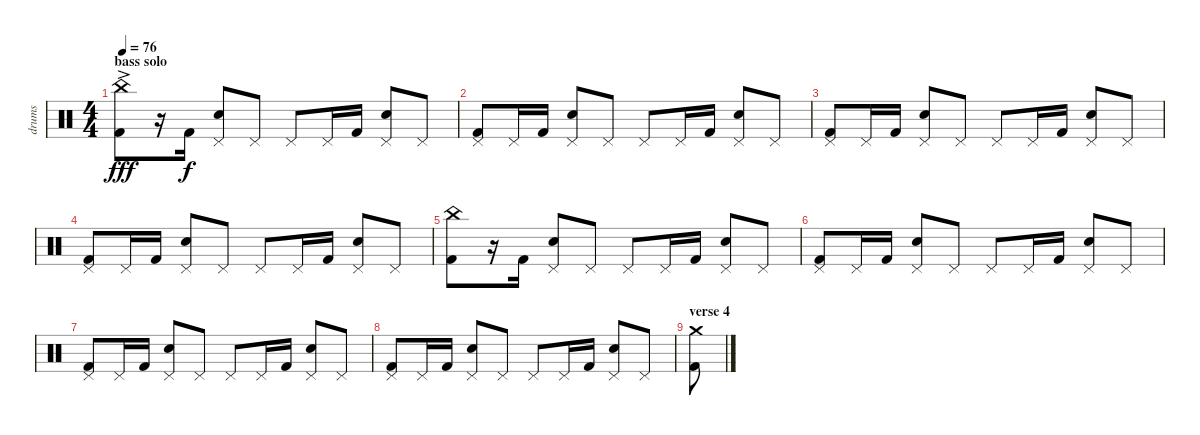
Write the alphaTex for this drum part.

\track ("drums" "drums") {instrument percussion}
\staff {score}
\articulation defaults
\ts (4 4)
\section ("" "bass solo")
\tempo 76
\clef neutral
\ks c
("China (hit)"{ac} "Kick (hit) 2"{ac}).8{dy fff} r.16 "Kick (hit) 2".16{dy f} ("Pedal Hi-Hat (hit)" "Snare (hit) 2").8 "Pedal Hi-Hat (hit)".8 "Pedal Hi-Hat (hit)".8 "Pedal Hi-Hat (hit)".16 "Kick (hit) 2".16 ("Pedal Hi-Hat (hit)" "Snare (hit) 2").8 "Pedal Hi-Hat (hit)".8 |
("Pedal Hi-Hat (hit)" "Kick (hit) 2").8 "Pedal Hi-Hat (hit)".16 "Kick (hit) 2".16 ("Pedal Hi-Hat (hit)" "Snare (hit) 2").8 "Pedal Hi-Hat (hit)".8 "Pedal Hi-Hat (hit)".8 "Pedal Hi-Hat (hit)".16 "Kick (hit) 2".16 ("Pedal Hi-Hat (hit)" "Snare (hit) 2").8 "Pedal Hi-Hat (hit)".8 |
("Pedal Hi-Hat (hit)" "Kick (hit) 2").8 "Pedal Hi-Hat (hit)".16 "Kick (hit) 2".16 ("Pedal Hi-Hat (hit)" "Snare (hit) 2").8 "Pedal Hi-Hat (hit)".8 "Pedal Hi-Hat (hit)".8 "Pedal Hi-Hat (hit)".16 "Kick (hit) 2".16 ("Pedal Hi-Hat (hit)" "Snare (hit) 2").8 "Pedal Hi-Hat (hit)".8 |
("Pedal Hi-Hat (hit)" "Kick (hit) 2").8 "Pedal Hi-Hat (hit)".16 "Kick (hit) 2".16 ("Pedal Hi-Hat (hit)" "Snare (hit) 2").8 "Pedal Hi-Hat (hit)".8 "Pedal Hi-Hat (hit)".8 "Pedal Hi-Hat (hit)".16 "Kick (hit) 2".16 ("Pedal Hi-Hat (hit)" "Snare (hit) 2").8 "Pedal Hi-Hat (hit)".8 |
("China (hit)" "Kick (hit) 2").8 r.16 "Kick (hit) 2".16 ("Pedal Hi-Hat (hit)" "Snare (hit) 2").8 "Pedal Hi-Hat (hit)".8 "Pedal Hi-Hat (hit)".8 "Pedal Hi-Hat (hit)".16 "Kick (hit) 2".16 ("Pedal Hi-Hat (hit)" "Snare (hit) 2").8 "Pedal Hi-Hat (hit)".8 |
("Pedal Hi-Hat (hit)" "Kick (hit) 2").8 "Pedal Hi-Hat (hit)".16 "Kick (hit) 2".16 ("Pedal Hi-Hat (hit)" "Snare (hit) 2").8 "Pedal Hi-Hat (hit)".8 "Pedal Hi-Hat (hit)".8 "Pedal Hi-Hat (hit)".16 "Kick (hit) 2".16 ("Pedal Hi-Hat (hit)" "Snare (hit) 2").8 "Pedal Hi-Hat (hit)".8 |
("Pedal Hi-Hat (hit)" "Kick (hit) 2").8 "Pedal Hi-Hat (hit)".16 "Kick (hit) 2".16 ("Pedal Hi-Hat (hit)" "Snare (hit) 2").8 "Pedal Hi-Hat (hit)".8 "Pedal Hi-Hat (hit)".8 "Pedal Hi-Hat (hit)".16 "Kick (hit) 2".16 ("Pedal Hi-Hat (hit)" "Snare (hit) 2").8 "Pedal Hi-Hat (hit)".8 |
("Pedal Hi-Hat (hit)" "Kick (hit) 2").8 "Pedal Hi-Hat (hit)".16 "Kick (hit) 2".16 ("Pedal Hi-Hat (hit)" "Snare (hit) 2").8 "Pedal Hi-Hat (hit)".8 "Pedal Hi-Hat (hit)".8 "Pedal Hi-Hat (hit)".16 "Kick (hit) 2".16 ("Pedal Hi-Hat (hit)" "Snare (hit) 2").8 "Pedal Hi-Hat (hit)".8 |
\section ("" "verse 4")
("Crash medium (hit)" "Kick (hit) 2").8
